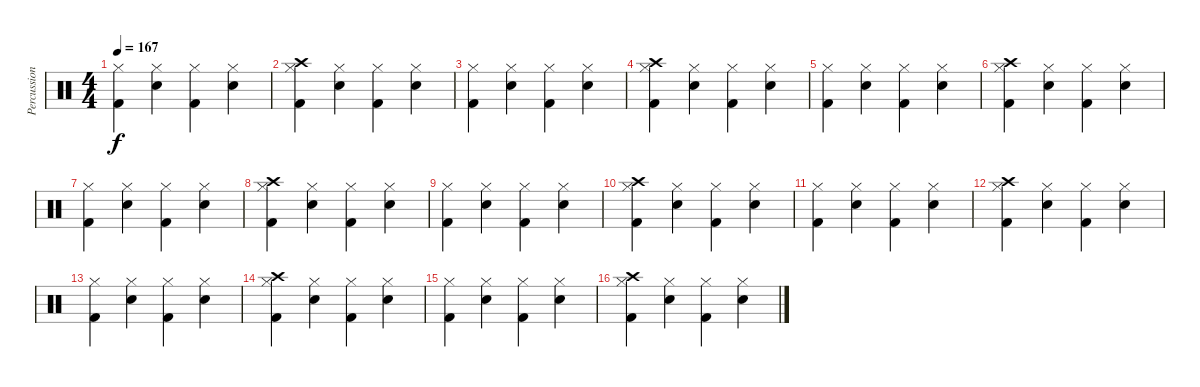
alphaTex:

\track ("Percussion" "Percussion") {instrument percussion}
\staff {score}
\articulation defaults
\ts (4 4)
\tempo 167
\clef neutral
\ks c
("Kick (hit) 2" "Hi-Hat (closed)").4{dy f} ("Hi-Hat (closed)" "Electric Snare (hit)").4 ("Kick (hit) 2" "Hi-Hat (closed)").4 ("Hi-Hat (closed)" "Electric Snare (hit)").4 |
("Kick (hit) 2" "Hi-Hat (closed)" "Crash high (hit)").4 ("Hi-Hat (closed)" "Electric Snare (hit)").4 ("Kick (hit) 2" "Hi-Hat (closed)").4 ("Hi-Hat (closed)" "Electric Snare (hit)").4 |
("Kick (hit) 2" "Hi-Hat (closed)").4 ("Hi-Hat (closed)" "Electric Snare (hit)").4 ("Kick (hit) 2" "Hi-Hat (closed)").4 ("Hi-Hat (closed)" "Electric Snare (hit)").4 |
("Kick (hit) 2" "Hi-Hat (closed)" "Crash high (hit)").4 ("Hi-Hat (closed)" "Electric Snare (hit)").4 ("Kick (hit) 2" "Hi-Hat (closed)").4 ("Hi-Hat (closed)" "Electric Snare (hit)").4 |
("Kick (hit) 2" "Hi-Hat (closed)").4 ("Hi-Hat (closed)" "Electric Snare (hit)").4 ("Kick (hit) 2" "Hi-Hat (closed)").4 ("Hi-Hat (closed)" "Electric Snare (hit)").4 |
("Kick (hit) 2" "Hi-Hat (closed)" "Crash high (hit)").4 ("Hi-Hat (closed)" "Electric Snare (hit)").4 ("Kick (hit) 2" "Hi-Hat (closed)").4 ("Hi-Hat (closed)" "Electric Snare (hit)").4 |
("Kick (hit) 2" "Hi-Hat (closed)").4 ("Hi-Hat (closed)" "Electric Snare (hit)").4 ("Kick (hit) 2" "Hi-Hat (closed)").4 ("Hi-Hat (closed)" "Electric Snare (hit)").4 |
("Kick (hit) 2" "Hi-Hat (closed)" "Crash high (hit)").4 ("Hi-Hat (closed)" "Electric Snare (hit)").4 ("Kick (hit) 2" "Hi-Hat (closed)").4 ("Hi-Hat (closed)" "Electric Snare (hit)").4 |
("Kick (hit) 2" "Hi-Hat (closed)").4 ("Hi-Hat (closed)" "Electric Snare (hit)").4 ("Kick (hit) 2" "Hi-Hat (closed)").4 ("Hi-Hat (closed)" "Electric Snare (hit)").4 |
("Kick (hit) 2" "Hi-Hat (closed)" "Crash high (hit)").4 ("Hi-Hat (closed)" "Electric Snare (hit)").4 ("Kick (hit) 2" "Hi-Hat (closed)").4 ("Hi-Hat (closed)" "Electric Snare (hit)").4 |
("Kick (hit) 2" "Hi-Hat (closed)").4 ("Hi-Hat (closed)" "Electric Snare (hit)").4 ("Kick (hit) 2" "Hi-Hat (closed)").4 ("Hi-Hat (closed)" "Electric Snare (hit)").4 |
("Kick (hit) 2" "Hi-Hat (closed)" "Crash high (hit)").4 ("Hi-Hat (closed)" "Electric Snare (hit)").4 ("Kick (hit) 2" "Hi-Hat (closed)").4 ("Hi-Hat (closed)" "Electric Snare (hit)").4 |
("Kick (hit) 2" "Hi-Hat (closed)").4 ("Hi-Hat (closed)" "Electric Snare (hit)").4 ("Kick (hit) 2" "Hi-Hat (closed)").4 ("Hi-Hat (closed)" "Electric Snare (hit)").4 |
("Kick (hit) 2" "Hi-Hat (closed)" "Crash high (hit)").4 ("Hi-Hat (closed)" "Electric Snare (hit)").4 ("Kick (hit) 2" "Hi-Hat (closed)").4 ("Hi-Hat (closed)" "Electric Snare (hit)").4 |
("Kick (hit) 2" "Hi-Hat (closed)").4 ("Hi-Hat (closed)" "Electric Snare (hit)").4 ("Kick (hit) 2" "Hi-Hat (closed)").4 ("Hi-Hat (closed)" "Electric Snare (hit)").4 |
("Kick (hit) 2" "Hi-Hat (closed)" "Crash high (hit)").4 ("Hi-Hat (closed)" "Electric Snare (hit)").4 ("Kick (hit) 2" "Hi-Hat (closed)").4 ("Hi-Hat (closed)" "Electric Snare (hit)").4
